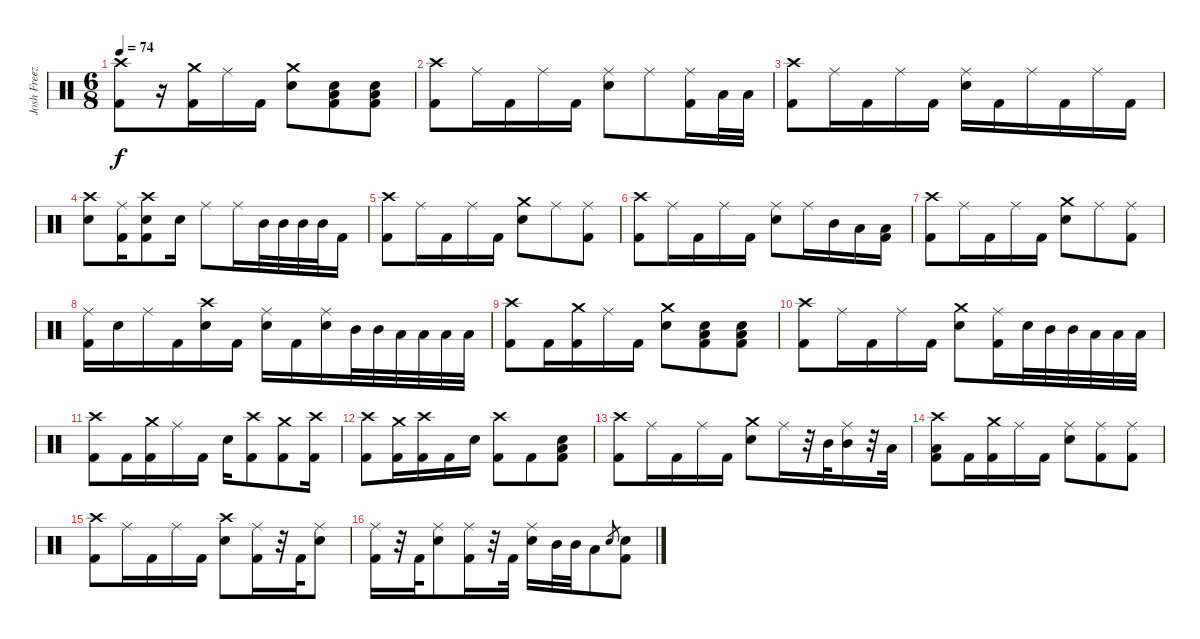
\track ("Josh Freeze - Drums" "Josh Freez") {instrument percussion}
\staff {score}
\articulation defaults
\ts (6 8)
\tempo 74
\clef neutral
\ks c
("Crash high (hit)" "Kick (hit) 2").8{dy f} r.16 ("Crash medium (hit)" "Kick (hit) 2").16 "Ride (middle)".16 "Kick (hit) 2".16 ("Crash medium (hit)" "Electric Snare (hit)").8 ("Electric Snare (hit)" "Low Tom (hit)" "Kick (hit) 2").8 ("Electric Snare (hit)" "Low Tom (hit)" "Kick (hit) 2").8 |
("Crash high (hit)" "Kick (hit) 2").8 "Ride (middle)".16 "Kick (hit) 2".16 "Ride (middle)".16 "Kick (hit) 2".16 ("Ride (middle)" "Electric Snare (hit)").8 "Ride (middle)".8 ("Ride (middle)" "Kick (hit) 2").16 "Low Tom (hit)".32 "Low Tom (hit)".32 |
("Crash high (hit)" "Kick (hit) 2").8 "Ride (middle)".16 "Kick (hit) 2".16 "Ride (middle)".16 "Kick (hit) 2".16 ("Ride (middle)" "Electric Snare (hit)").16 "Kick (hit) 2".16 "Ride (middle)".16 "Kick (hit) 2".16 "Ride (middle)".16 "Kick (hit) 2".16 |
("Crash high (hit)" "Electric Snare (hit)").8 ("Ride (middle)" "Kick (hit) 2").16 ("Crash high (hit)" "Electric Snare (hit)" "Kick (hit) 2").8 "Electric Snare (hit)".16 "Ride (middle)".8 "Ride (middle)".16 "Mid Tom (hit)".32 "Mid Tom (hit)".32 "Mid Tom (hit)".32 "Mid Tom (hit)".32 "Kick (hit) 2".16 |
("Crash high (hit)" "Kick (hit) 2").8 "Ride (middle)".16 "Kick (hit) 2".16 "Ride (middle)".16 "Kick (hit) 2".16 ("Crash medium (hit)" "Electric Snare (hit)").8 "Ride (middle)".8 ("Ride (middle)" "Kick (hit) 2").8 |
("Crash high (hit)" "Kick (hit) 2").8 "Ride (middle)".16 "Kick (hit) 2".16 "Ride (middle)".16 "Kick (hit) 2".16 ("Ride (middle)" "Electric Snare (hit)").8 "Ride (middle)".16 "Mid Tom (hit)".16 "Low Tom (hit)".16 ("Low Tom (hit)" "Kick (hit) 2").16 |
("Crash high (hit)" "Kick (hit) 2").8 "Ride (middle)".16 "Kick (hit) 2".16 "Ride (middle)".16 "Kick (hit) 2".16 ("Crash medium (hit)" "Electric Snare (hit)").8 "Ride (middle)".8 ("Ride (middle)" "Kick (hit) 2").8 |
("Ride (middle)" "Kick (hit) 2").16 "Electric Snare (hit)".16 "Ride (middle)".16 "Kick (hit) 2".16 ("Crash high (hit)" "Electric Snare (hit)").16 "Kick (hit) 2".16 ("Ride (middle)" "Electric Snare (hit)").16 "Kick (hit) 2".16 ("Ride (middle)" "Electric Snare (hit)").16 "Mid Tom (hit)".32 "Mid Tom (hit)".32 "Low Tom (hit)".32 "Low Tom (hit)".32 "Low Tom (hit)".32 "Low Tom (hit)".32 |
("Crash high (hit)" "Kick (hit) 2").8 "Kick (hit) 2".16 ("Crash medium (hit)" "Kick (hit) 2").16 "Ride (middle)".16 "Kick (hit) 2".16 ("Crash medium (hit)" "Electric Snare (hit)").8 ("Electric Snare (hit)" "Low Tom (hit)" "Kick (hit) 2").8 ("Electric Snare (hit)" "Low Tom (hit)" "Kick (hit) 2").8 |
("Crash high (hit)" "Kick (hit) 2").8 "Ride (middle)".16 "Kick (hit) 2".16 "Ride (middle)".16 "Kick (hit) 2".16 ("Crash medium (hit)" "Electric Snare (hit)").8 ("Ride (middle)" "Kick (hit) 2").16 "Electric Snare (hit)".32 "Mid Tom (hit)".32 "Mid Tom (hit)".32 "Low Tom (hit)".32 "Low Tom (hit)".32 "Low Tom (hit)".32 |
("Crash high (hit)" "Kick (hit) 2").8 "Kick (hit) 2".16 ("Crash medium (hit)" "Kick (hit) 2").16 "Ride (middle)".16 "Kick (hit) 2".16 "Electric Snare (hit)".16 ("Crash high (hit)" "Kick (hit) 2").8 ("Crash medium (hit)" "Kick (hit) 2").8 ("Crash high (hit)" "Kick (hit) 2").16 |
("Crash high (hit)" "Kick (hit) 2").8 ("Crash medium (hit)" "Kick (hit) 2").16 ("Crash high (hit)" "Kick (hit) 2").16 "Kick (hit) 2".16 "Electric Snare (hit)".16 ("Crash high (hit)" "Kick (hit) 2").8 "Kick (hit) 2".8 ("Electric Snare (hit)" "Low Tom (hit)" "Kick (hit) 2").8 |
("Crash high (hit)" "Kick (hit) 2").8 "Ride (middle)".16 "Kick (hit) 2".16 "Ride (middle)".16 "Kick (hit) 2".16 ("Crash medium (hit)" "Electric Snare (hit)").8 "Ride (middle)".16 r.32 "Mid Tom (hit)".32 ("Ride (middle)" "Mid Tom (hit)").16 r.32 "Low Tom (hit)".32 |
("Crash high (hit)" "Low Tom (hit)" "Kick (hit) 2").8 "Kick (hit) 2".16 ("Crash medium (hit)" "Kick (hit) 2").16 "Ride (middle)".16 "Kick (hit) 2".16 ("Ride (middle)" "Electric Snare (hit)").8 ("Ride (middle)" "Kick (hit) 2").8 ("Ride (middle)" "Kick (hit) 2").8 |
("Crash high (hit)" "Kick (hit) 2").8 "Ride (middle)".16 "Kick (hit) 2".16 "Ride (middle)".16 "Kick (hit) 2".16 ("Crash high (hit)" "Electric Snare (hit)").8 ("Ride (middle)" "Kick (hit) 2").16 r.32 "Kick (hit) 2".32 ("Ride (middle)" "Electric Snare (hit)").8 |
("Ride (middle)" "Kick (hit) 2").16 r.32 "Kick (hit) 2".32 ("Ride (middle)" "Electric Snare (hit)").8 ("Ride (middle)" "Kick (hit) 2").16 r.32 "Kick (hit) 2".32 ("Ride (middle)" "Electric Snare (hit)").16 "Mid Tom (hit)".32 "Mid Tom (hit)".32 "Low Tom (hit)".8 "Electric Snare (hit)".8{gr} ("Electric Snare (hit)" "Kick (hit) 2").8
